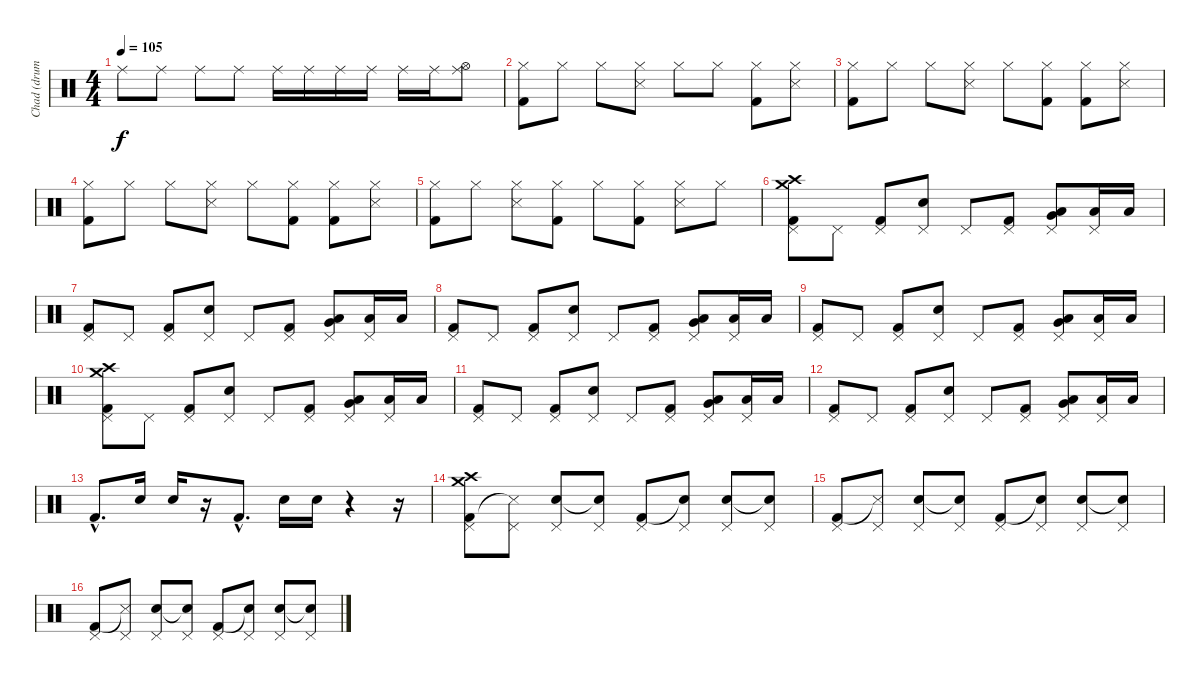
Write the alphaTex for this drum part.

\track ("Chad (drums)" "Chad (drum") {instrument percussion}
\staff {score}
\articulation defaults
\ts (4 4)
\tempo 105
\clef neutral
\ks c "Ride (middle)".8{dy f} "Ride (middle)".8 "Ride (middle)".8 "Ride (middle)".8 "Ride (middle)".16 "Ride (middle)".16 "Ride (middle)".16 "Ride (middle)".16 "Ride (middle)".16 "Ride (middle)".16
("Hi-Hat (open)" "Ride (middle)").8 |
("Hi-Hat (closed)" "Kick (hit) 2").8 "Hi-Hat (closed)".8 "Hi-Hat (closed)".8 ("Hi-Hat (closed)" "Metronome (hit)").8 "Hi-Hat (closed)".8 "Hi-Hat (closed)".8 ("Hi-Hat (closed)" "Kick (hit) 2").8 ("Hi-Hat (closed)" "Metronome (hit)").8 |
("Hi-Hat (closed)" "Kick (hit) 2").8 "Hi-Hat (closed)".8 "Hi-Hat (closed)".8 ("Hi-Hat (closed)" "Metronome (hit)").8 "Hi-Hat (closed)".8 ("Hi-Hat (closed)" "Kick (hit) 2").8 ("Hi-Hat (closed)" "Kick (hit) 2").8 ("Hi-Hat (closed)" "Metronome (hit)").8 |
("Hi-Hat (closed)" "Kick (hit) 2").8 "Hi-Hat (closed)".8 "Hi-Hat (closed)".8 ("Hi-Hat (closed)" "Metronome (hit)").8 "Hi-Hat (closed)".8 ("Hi-Hat (closed)" "Kick (hit) 2").8 ("Hi-Hat (closed)" "Kick (hit) 2").8 ("Hi-Hat (closed)" "Metronome (hit)").8 |
("Hi-Hat (closed)" "Kick (hit) 2").8 "Hi-Hat (closed)".8 ("Hi-Hat (closed)" "Metronome (hit)").8 ("Hi-Hat (closed)" "Kick (hit) 2").8 "Hi-Hat (closed)".8 ("Hi-Hat (closed)" "Kick (hit) 2").8 ("Hi-Hat (closed)" "Metronome (hit)").8 "Hi-Hat (closed)".8 |
("Pedal Hi-Hat (hit)" "Kick (hit) 2" "Crash medium (hit)" "Crash high (hit)").8 "Pedal Hi-Hat (hit)".8 ("Pedal Hi-Hat (hit)" "Kick (hit) 2").8 ("Pedal Hi-Hat (hit)" "Electric Snare (hit)").8 "Pedal Hi-Hat (hit)".8 ("Pedal Hi-Hat (hit)" "Kick (hit) 2").8 ("Pedal Hi-Hat (hit)" "Very Low Tom (hit)" "Low Tom (hit)").8 ("Pedal Hi-Hat (hit)" "Low Floor Tom (hit)").16 "Low Floor Tom (hit)".16 |
("Pedal Hi-Hat (hit)" "Kick (hit) 2").8 "Pedal Hi-Hat (hit)".8 ("Pedal Hi-Hat (hit)" "Kick (hit) 2").8 ("Pedal Hi-Hat (hit)" "Electric Snare (hit)").8 "Pedal Hi-Hat (hit)".8 ("Pedal Hi-Hat (hit)" "Kick (hit) 2").8 ("Pedal Hi-Hat (hit)" "Very Low Tom (hit)" "Low Tom (hit)").8 ("Pedal Hi-Hat (hit)" "Low Floor Tom (hit)").16 "Low Floor Tom (hit)".16 |
("Pedal Hi-Hat (hit)" "Kick (hit) 2").8 "Pedal Hi-Hat (hit)".8 ("Pedal Hi-Hat (hit)" "Kick (hit) 2").8 ("Pedal Hi-Hat (hit)" "Electric Snare (hit)").8 "Pedal Hi-Hat (hit)".8 ("Pedal Hi-Hat (hit)" "Kick (hit) 2").8 ("Pedal Hi-Hat (hit)" "Very Low Tom (hit)" "Low Tom (hit)").8 ("Pedal Hi-Hat (hit)" "Low Floor Tom (hit)").16 "Low Floor Tom (hit)".16 |
("Pedal Hi-Hat (hit)" "Kick (hit) 2").8 "Pedal Hi-Hat (hit)".8 ("Pedal Hi-Hat (hit)" "Kick (hit) 2").8 ("Pedal Hi-Hat (hit)" "Electric Snare (hit)").8 "Pedal Hi-Hat (hit)".8 ("Pedal Hi-Hat (hit)" "Kick (hit) 2").8 ("Pedal Hi-Hat (hit)" "Very Low Tom (hit)" "Low Tom (hit)").8 ("Pedal Hi-Hat (hit)" "Low Floor Tom (hit)").16 "Low Floor Tom (hit)".16 |
("Pedal Hi-Hat (hit)" "Kick (hit) 2" "Crash medium (hit)" "Crash high (hit)").8 "Pedal Hi-Hat (hit)".8 ("Pedal Hi-Hat (hit)" "Kick (hit) 2").8 ("Pedal Hi-Hat (hit)" "Electric Snare (hit)").8 "Pedal Hi-Hat (hit)".8 ("Pedal Hi-Hat (hit)" "Kick (hit) 2").8 ("Pedal Hi-Hat (hit)" "Very Low Tom (hit)" "Low Tom (hit)").8 ("Pedal Hi-Hat (hit)" "Low Floor Tom (hit)").16 "Low Floor Tom (hit)".16 |
("Pedal Hi-Hat (hit)" "Kick (hit) 2").8 "Pedal Hi-Hat (hit)".8 ("Pedal Hi-Hat (hit)" "Kick (hit) 2").8 ("Pedal Hi-Hat (hit)" "Electric Snare (hit)").8 "Pedal Hi-Hat (hit)".8 ("Pedal Hi-Hat (hit)" "Kick (hit) 2").8 ("Pedal Hi-Hat (hit)" "Very Low Tom (hit)" "Low Tom (hit)").8 ("Pedal Hi-Hat (hit)" "Low Floor Tom (hit)").16 "Low Floor Tom (hit)".16 |
("Pedal Hi-Hat (hit)" "Kick (hit) 2").8 "Pedal Hi-Hat (hit)".8 ("Pedal Hi-Hat (hit)" "Kick (hit) 2").8 ("Pedal Hi-Hat (hit)" "Electric Snare (hit)").8 "Pedal Hi-Hat (hit)".8 ("Pedal Hi-Hat (hit)" "Kick (hit) 2").8 ("Pedal Hi-Hat (hit)" "Very Low Tom (hit)" "Low Tom (hit)").8 ("Pedal Hi-Hat (hit)" "Low Floor Tom (hit)").16 "Low Floor Tom (hit)".16 |
"Kick (hit) 2"{hac}.8{d} "Electric Snare (hit)".16 "Electric Snare (hit)".16 r.16 "Kick (hit) 2"{hac}.8{d} "Electric Snare (hit)".16 "Electric Snare (hit)".16 r.4 r.16 |
("Pedal Hi-Hat (hit)" "Kick (hit) 2" "Crash medium (hit)" "Crash high (hit)").8 ("Pedal Hi-Hat (hit)" "Snare (side stick) 3"{t}).8 ("Pedal Hi-Hat (hit)" "Electric Snare (hit)").8 ("Pedal Hi-Hat (hit)" "Snare (hit)"{t}).8 ("Pedal Hi-Hat (hit)" "Kick (hit) 2").8 ("Pedal Hi-Hat (hit)" "Snare (hit)"{t}).8 ("Pedal Hi-Hat (hit)" "Electric Snare (hit)").8 ("Pedal Hi-Hat (hit)" "Snare (hit)"{t}).8 |
("Pedal Hi-Hat (hit)" "Kick (hit) 2").8 ("Pedal Hi-Hat (hit)" "Snare (side stick) 3"{t}).8 ("Pedal Hi-Hat (hit)" "Electric Snare (hit)").8 ("Pedal Hi-Hat (hit)" "Snare (hit)"{t}).8 ("Pedal Hi-Hat (hit)" "Kick (hit) 2").8 ("Pedal Hi-Hat (hit)" "Snare (hit)"{t}).8 ("Pedal Hi-Hat (hit)" "Electric Snare (hit)").8 ("Pedal Hi-Hat (hit)" "Snare (hit)"{t}).8 |
("Pedal Hi-Hat (hit)" "Kick (hit) 2").8 ("Pedal Hi-Hat (hit)" "Snare (side stick) 3"{t}).8 ("Pedal Hi-Hat (hit)" "Electric Snare (hit)").8 ("Pedal Hi-Hat (hit)" "Snare (hit)"{t}).8 ("Pedal Hi-Hat (hit)" "Kick (hit) 2").8 ("Pedal Hi-Hat (hit)" "Snare (hit)"{t}).8 ("Pedal Hi-Hat (hit)" "Electric Snare (hit)").8 ("Pedal Hi-Hat (hit)" "Snare (hit)"{t}).8
